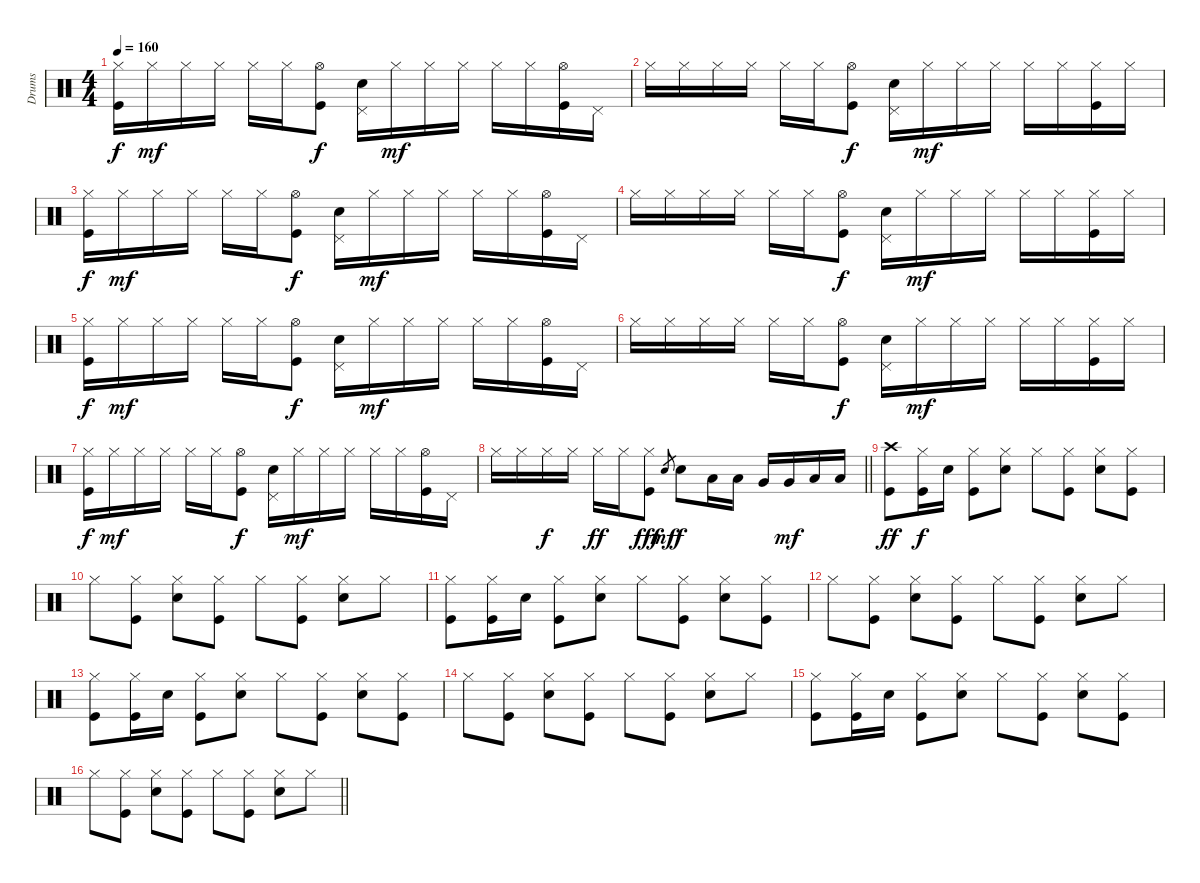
\track ("Drums" "Drums") {instrument percussion}
\staff {score}
\articulation defaults
\ts (4 4)
\tempo 160
\clef neutral
\ks c
("Hi-Hat (closed)" "Kick (hit)").16{dy f} "Hi-Hat (closed)".16{dy mf} "Hi-Hat (closed)".16 "Hi-Hat (closed)".16 "Hi-Hat (closed)".16 "Hi-Hat (closed)".16 ("Hi-Hat (open)" "Kick (hit)").8{dy f} ("Pedal Hi-Hat (hit)" "Snare (hit) 2").16 "Hi-Hat (closed)".16{dy mf} "Hi-Hat (closed)".16 "Hi-Hat (closed)".16 "Hi-Hat (closed)".16 "Hi-Hat (closed)".16 ("Hi-Hat (open)" "Kick (hit)").16 "Pedal Hi-Hat (hit)".16 |
"Hi-Hat (closed)".16 "Hi-Hat (closed)".16 "Hi-Hat (closed)".16 "Hi-Hat (closed)".16 "Hi-Hat (closed)".16 "Hi-Hat (closed)".16 ("Hi-Hat (open)" "Kick (hit)").8{dy f} ("Pedal Hi-Hat (hit)" "Snare (hit) 2").16 "Hi-Hat (closed)".16{dy mf} "Hi-Hat (closed)".16 "Hi-Hat (closed)".16 "Hi-Hat (closed)".16 "Hi-Hat (closed)".16 ("Hi-Hat (closed)" "Kick (hit)").16 "Hi-Hat (closed)".16 |
("Hi-Hat (closed)" "Kick (hit)").16{dy f} "Hi-Hat (closed)".16{dy mf} "Hi-Hat (closed)".16 "Hi-Hat (closed)".16 "Hi-Hat (closed)".16 "Hi-Hat (closed)".16 ("Hi-Hat (open)" "Kick (hit)").8{dy f} ("Pedal Hi-Hat (hit)" "Snare (hit) 2").16 "Hi-Hat (closed)".16{dy mf} "Hi-Hat (closed)".16 "Hi-Hat (closed)".16 "Hi-Hat (closed)".16 "Hi-Hat (closed)".16 ("Hi-Hat (open)" "Kick (hit)").16 "Pedal Hi-Hat (hit)".16 |
"Hi-Hat (closed)".16 "Hi-Hat (closed)".16 "Hi-Hat (closed)".16 "Hi-Hat (closed)".16 "Hi-Hat (closed)".16 "Hi-Hat (closed)".16 ("Hi-Hat (open)" "Kick (hit)").8{dy f} ("Pedal Hi-Hat (hit)" "Snare (hit) 2").16 "Hi-Hat (closed)".16{dy mf} "Hi-Hat (closed)".16 "Hi-Hat (closed)".16 "Hi-Hat (closed)".16 "Hi-Hat (closed)".16 ("Hi-Hat (closed)" "Kick (hit)").16 "Hi-Hat (closed)".16 |
("Hi-Hat (closed)" "Kick (hit)").16{dy f} "Hi-Hat (closed)".16{dy mf} "Hi-Hat (closed)".16 "Hi-Hat (closed)".16 "Hi-Hat (closed)".16 "Hi-Hat (closed)".16 ("Hi-Hat (open)" "Kick (hit)").8{dy f} ("Pedal Hi-Hat (hit)" "Snare (hit) 2").16 "Hi-Hat (closed)".16{dy mf} "Hi-Hat (closed)".16 "Hi-Hat (closed)".16 "Hi-Hat (closed)".16 "Hi-Hat (closed)".16 ("Hi-Hat (open)" "Kick (hit)").16 "Pedal Hi-Hat (hit)".16 |
"Hi-Hat (closed)".16 "Hi-Hat (closed)".16 "Hi-Hat (closed)".16 "Hi-Hat (closed)".16 "Hi-Hat (closed)".16 "Hi-Hat (closed)".16 ("Hi-Hat (open)" "Kick (hit)").8{dy f} ("Pedal Hi-Hat (hit)" "Snare (hit) 2").16 "Hi-Hat (closed)".16{dy mf} "Hi-Hat (closed)".16 "Hi-Hat (closed)".16 "Hi-Hat (closed)".16 "Hi-Hat (closed)".16 ("Hi-Hat (closed)" "Kick (hit)").16 "Hi-Hat (closed)".16 |
("Hi-Hat (closed)" "Kick (hit)").16{dy f} "Hi-Hat (closed)".16{dy mf} "Hi-Hat (closed)".16 "Hi-Hat (closed)".16 "Hi-Hat (closed)".16 "Hi-Hat (closed)".16 ("Hi-Hat (open)" "Kick (hit)").8{dy f} ("Pedal Hi-Hat (hit)" "Snare (hit) 2").16 "Hi-Hat (closed)".16{dy mf} "Hi-Hat (closed)".16 "Hi-Hat (closed)".16 "Hi-Hat (closed)".16 "Hi-Hat (closed)".16 ("Hi-Hat (open)" "Kick (hit)").16 "Pedal Hi-Hat (hit)".16 |
\barLineRight lightlight "Hi-Hat (closed)".16 "Hi-Hat (closed)".16 "Hi-Hat (closed)".16{dy f} "Hi-Hat (closed)".16 "Hi-Hat (closed)".16{dy ff} "Hi-Hat (closed)".16
("Hi-Hat (closed)" "Kick (hit)").8{dy fff} "Snare (hit) 2".8{gr dy mf} "Snare (hit) 2".8{dy f} "Low Tom (hit)".16 "Low Tom (hit)".16 "Very Low Tom (hit)".16 "Very Low Tom (hit)".16{dy mf} "Low Floor Tom (hit)".16 "Low Floor Tom (hit)".16 |
("Crash high (hit)" "Kick (hit)").8{dy ff} ("Hi-Hat (closed)" "Kick (hit)").16{dy f} "Snare (hit) 2".16 ("Hi-Hat (closed)" "Kick (hit)").8 ("Hi-Hat (closed)" "Snare (hit) 2").8 "Hi-Hat (closed)".8 ("Hi-Hat (closed)" "Kick (hit)").8 ("Hi-Hat (closed)" "Snare (hit) 2").8 ("Hi-Hat (closed)" "Kick (hit)").8 |
"Hi-Hat (closed)".8 ("Hi-Hat (closed)" "Kick (hit)").8 ("Hi-Hat (closed)" "Snare (hit) 2").8 ("Hi-Hat (closed)" "Kick (hit)").8 "Hi-Hat (closed)".8 ("Hi-Hat (closed)" "Kick (hit)").8 ("Hi-Hat (closed)" "Snare (hit) 2").8 "Hi-Hat (closed)".8 |
("Hi-Hat (closed)" "Kick (hit)").8 ("Hi-Hat (closed)" "Kick (hit)").16 "Snare (hit) 2".16 ("Hi-Hat (closed)" "Kick (hit)").8 ("Hi-Hat (closed)" "Snare (hit) 2").8 "Hi-Hat (closed)".8 ("Hi-Hat (closed)" "Kick (hit)").8 ("Hi-Hat (closed)" "Snare (hit) 2").8 ("Hi-Hat (closed)" "Kick (hit)").8 |
"Hi-Hat (closed)".8 ("Hi-Hat (closed)" "Kick (hit)").8 ("Hi-Hat (closed)" "Snare (hit) 2").8 ("Hi-Hat (closed)" "Kick (hit)").8 "Hi-Hat (closed)".8 ("Hi-Hat (closed)" "Kick (hit)").8 ("Hi-Hat (closed)" "Snare (hit) 2").8 "Hi-Hat (closed)".8 |
("Hi-Hat (closed)" "Kick (hit)").8 ("Hi-Hat (closed)" "Kick (hit)").16 "Snare (hit) 2".16 ("Hi-Hat (closed)" "Kick (hit)").8 ("Hi-Hat (closed)" "Snare (hit) 2").8 "Hi-Hat (closed)".8 ("Hi-Hat (closed)" "Kick (hit)").8 ("Hi-Hat (closed)" "Snare (hit) 2").8 ("Hi-Hat (closed)" "Kick (hit)").8 |
"Hi-Hat (closed)".8 ("Hi-Hat (closed)" "Kick (hit)").8 ("Hi-Hat (closed)" "Snare (hit) 2").8 ("Hi-Hat (closed)" "Kick (hit)").8 "Hi-Hat (closed)".8 ("Hi-Hat (closed)" "Kick (hit)").8 ("Hi-Hat (closed)" "Snare (hit) 2").8 "Hi-Hat (closed)".8 |
("Hi-Hat (closed)" "Kick (hit)").8 ("Hi-Hat (closed)" "Kick (hit)").16 "Snare (hit) 2".16 ("Hi-Hat (closed)" "Kick (hit)").8 ("Hi-Hat (closed)" "Snare (hit) 2").8 "Hi-Hat (closed)".8 ("Hi-Hat (closed)" "Kick (hit)").8 ("Hi-Hat (closed)" "Snare (hit) 2").8 ("Hi-Hat (closed)" "Kick (hit)").8 |
\barLineRight lightlight "Hi-Hat (closed)".8
("Hi-Hat (closed)" "Kick (hit)").8 ("Hi-Hat (closed)" "Snare (hit) 2").8 ("Hi-Hat (closed)" "Kick (hit)").8 "Hi-Hat (closed)".8 ("Hi-Hat (closed)" "Kick (hit)").8 ("Hi-Hat (closed)" "Snare (hit) 2").8 "Hi-Hat (closed)".8
